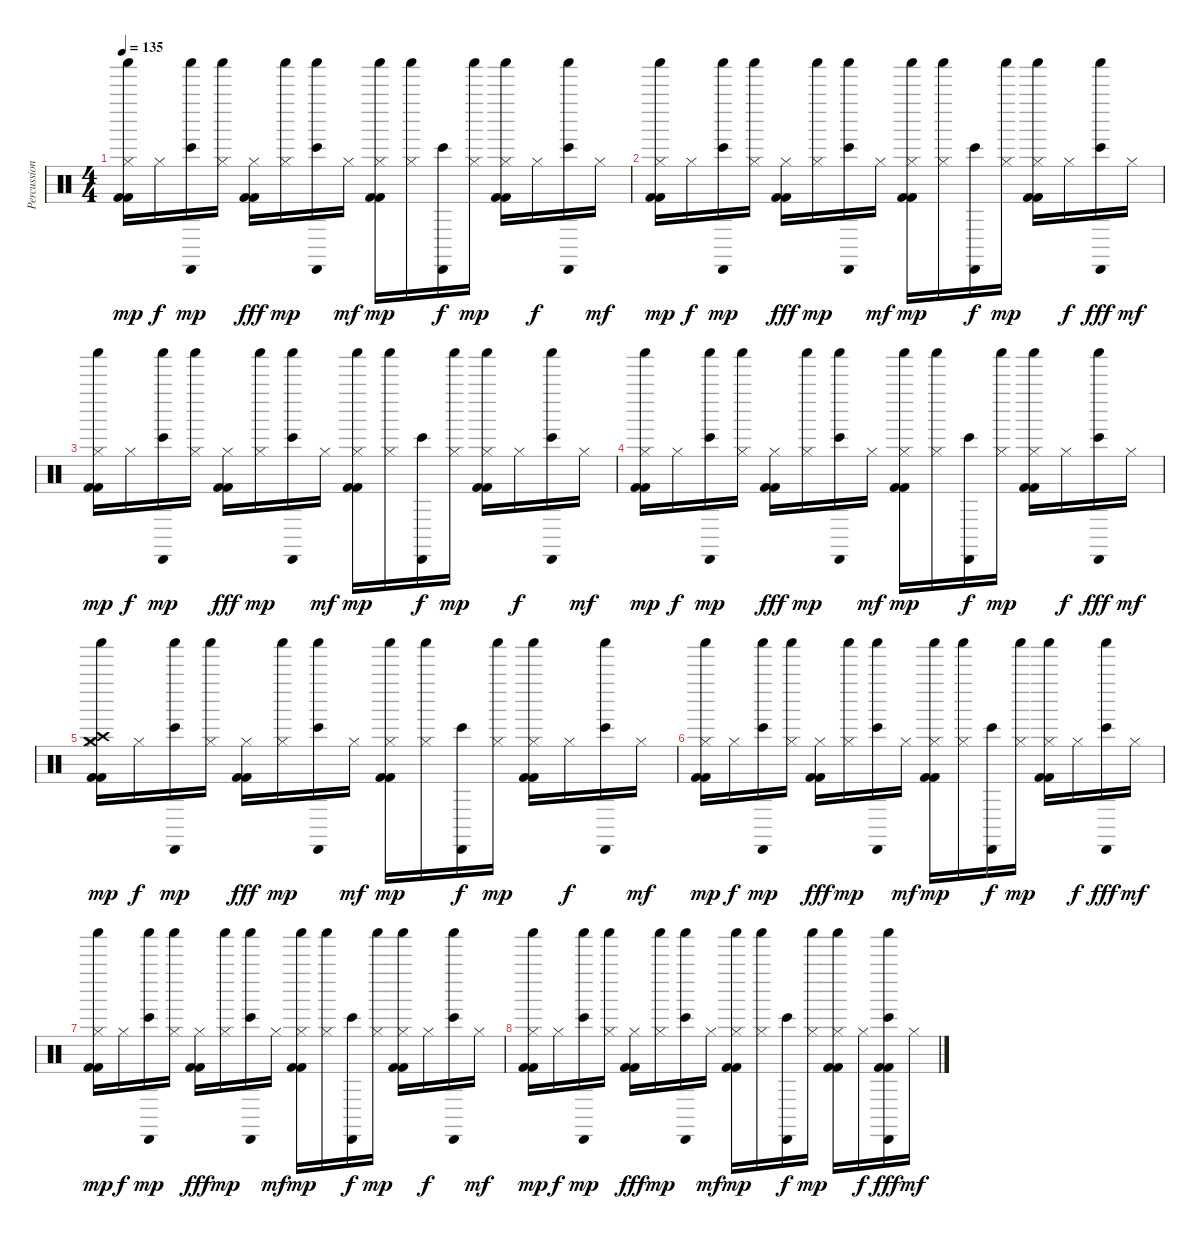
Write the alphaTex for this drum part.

\track ("Percussion" "Percussion") {instrument percussion}
\staff {score}
\articulation defaults
\ts (4 4)
\tempo 135
\clef neutral
\ks c
("Hi-Hat (closed)" "Kick (hit) 2" "Kick (hit) 2" "Shaker (hit)").16{dy mp} "Hi-Hat (closed)".16{dy f} ("Cabasa (hit)" "Bongo High (hit)" "Shaker (hit)").16{dy mp} ("Hi-Hat (closed)" "Shaker (hit)").16 ("Hi-Hat (closed)" "Kick (hit) 2" "Kick (hit) 2").16{dy fff} ("Hi-Hat (closed)" "Shaker (hit)").16{dy mp} ("Cabasa (hit)" "Bongo High (hit)" "Shaker (hit)").16 "Hi-Hat (closed)".16{dy mf} ("Hi-Hat (closed)" "Kick (hit) 2" "Kick (hit) 2" "Shaker (hit)").16{dy mp} ("Hi-Hat (closed)" "Shaker (hit)").16 ("Cabasa (hit)" "Bongo High (hit)").16{dy f} ("Hi-Hat (closed)" "Shaker (hit)").16{dy mp} ("Hi-Hat (closed)" "Kick (hit) 2" "Kick (hit) 2" "Shaker (hit)").16 "Hi-Hat (closed)".16{dy f} ("Cabasa (hit)" "Bongo High (hit)" "Shaker (hit)").16 "Hi-Hat (closed)".16{dy mf} |
("Hi-Hat (closed)" "Kick (hit) 2" "Kick (hit) 2" "Shaker (hit)").16{dy mp} "Hi-Hat (closed)".16{dy f} ("Cabasa (hit)" "Bongo High (hit)" "Shaker (hit)").16{dy mp} ("Hi-Hat (closed)" "Shaker (hit)").16 ("Hi-Hat (closed)" "Kick (hit) 2" "Kick (hit) 2").16{dy fff} ("Hi-Hat (closed)" "Shaker (hit)").16{dy mp} ("Cabasa (hit)" "Bongo High (hit)" "Shaker (hit)").16 "Hi-Hat (closed)".16{dy mf} ("Hi-Hat (closed)" "Kick (hit) 2" "Kick (hit) 2" "Shaker (hit)").16{dy mp} ("Hi-Hat (closed)" "Shaker (hit)").16 ("Cabasa (hit)" "Bongo High (hit)").16{dy f} ("Hi-Hat (closed)" "Shaker (hit)").16{dy mp} ("Hi-Hat (closed)" "Kick (hit) 2" "Kick (hit) 2" "Shaker (hit)").16 "Hi-Hat (closed)".16{dy f} ("Cabasa (hit)" "Bongo High (hit)" "Shaker (hit)").16{dy fff} "Hi-Hat (closed)".16{dy mf} |
("Hi-Hat (closed)" "Kick (hit) 2" "Kick (hit) 2" "Shaker (hit)").16{dy mp} "Hi-Hat (closed)".16{dy f} ("Cabasa (hit)" "Bongo High (hit)" "Shaker (hit)").16{dy mp} ("Hi-Hat (closed)" "Shaker (hit)").16 ("Hi-Hat (closed)" "Kick (hit) 2" "Kick (hit) 2").16{dy fff} ("Hi-Hat (closed)" "Shaker (hit)").16{dy mp} ("Cabasa (hit)" "Bongo High (hit)" "Shaker (hit)").16 "Hi-Hat (closed)".16{dy mf} ("Hi-Hat (closed)" "Kick (hit) 2" "Kick (hit) 2" "Shaker (hit)").16{dy mp} ("Hi-Hat (closed)" "Shaker (hit)").16 ("Cabasa (hit)" "Bongo High (hit)").16{dy f} ("Hi-Hat (closed)" "Shaker (hit)").16{dy mp} ("Hi-Hat (closed)" "Kick (hit) 2" "Kick (hit) 2" "Shaker (hit)").16 "Hi-Hat (closed)".16{dy f} ("Cabasa (hit)" "Bongo High (hit)" "Shaker (hit)").16 "Hi-Hat (closed)".16{dy mf} |
("Hi-Hat (closed)" "Kick (hit) 2" "Kick (hit) 2" "Shaker (hit)").16{dy mp} "Hi-Hat (closed)".16{dy f} ("Cabasa (hit)" "Bongo High (hit)" "Shaker (hit)").16{dy mp} ("Hi-Hat (closed)" "Shaker (hit)").16 ("Hi-Hat (closed)" "Kick (hit) 2" "Kick (hit) 2").16{dy fff} ("Hi-Hat (closed)" "Shaker (hit)").16{dy mp} ("Cabasa (hit)" "Bongo High (hit)" "Shaker (hit)").16 "Hi-Hat (closed)".16{dy mf} ("Hi-Hat (closed)" "Kick (hit) 2" "Kick (hit) 2" "Shaker (hit)").16{dy mp} ("Hi-Hat (closed)" "Shaker (hit)").16 ("Cabasa (hit)" "Bongo High (hit)").16{dy f} ("Hi-Hat (closed)" "Shaker (hit)").16{dy mp} ("Hi-Hat (closed)" "Kick (hit) 2" "Kick (hit) 2" "Shaker (hit)").16 "Hi-Hat (closed)".16{dy f} ("Cabasa (hit)" "Bongo High (hit)" "Shaker (hit)").16{dy fff} "Hi-Hat (closed)".16{dy mf} |
("Crash medium (hit)" "Hi-Hat (closed)" "Crash high (hit)" "Kick (hit) 2" "Kick (hit) 2" "Shaker (hit)").16{dy mp} "Hi-Hat (closed)".16{dy f} ("Cabasa (hit)" "Bongo High (hit)" "Shaker (hit)").16{dy mp} ("Hi-Hat (closed)" "Shaker (hit)").16 ("Hi-Hat (closed)" "Kick (hit) 2" "Kick (hit) 2").16{dy fff} ("Hi-Hat (closed)" "Shaker (hit)").16{dy mp} ("Cabasa (hit)" "Bongo High (hit)" "Shaker (hit)").16 "Hi-Hat (closed)".16{dy mf} ("Hi-Hat (closed)" "Kick (hit) 2" "Kick (hit) 2" "Shaker (hit)").16{dy mp} ("Hi-Hat (closed)" "Shaker (hit)").16 ("Cabasa (hit)" "Bongo High (hit)").16{dy f} ("Hi-Hat (closed)" "Shaker (hit)").16{dy mp} ("Hi-Hat (closed)" "Kick (hit) 2" "Kick (hit) 2" "Shaker (hit)").16 "Hi-Hat (closed)".16{dy f} ("Cabasa (hit)" "Bongo High (hit)" "Shaker (hit)").16 "Hi-Hat (closed)".16{dy mf} |
("Hi-Hat (closed)" "Kick (hit) 2" "Kick (hit) 2" "Shaker (hit)").16{dy mp} "Hi-Hat (closed)".16{dy f} ("Cabasa (hit)" "Bongo High (hit)" "Shaker (hit)").16{dy mp} ("Hi-Hat (closed)" "Shaker (hit)").16 ("Hi-Hat (closed)" "Kick (hit) 2" "Kick (hit) 2").16{dy fff} ("Hi-Hat (closed)" "Shaker (hit)").16{dy mp} ("Cabasa (hit)" "Bongo High (hit)" "Shaker (hit)").16 "Hi-Hat (closed)".16{dy mf} ("Hi-Hat (closed)" "Kick (hit) 2" "Kick (hit) 2" "Shaker (hit)").16{dy mp} ("Hi-Hat (closed)" "Shaker (hit)").16 ("Cabasa (hit)" "Bongo High (hit)").16{dy f} ("Hi-Hat (closed)" "Shaker (hit)").16{dy mp} ("Hi-Hat (closed)" "Kick (hit) 2" "Kick (hit) 2" "Shaker (hit)").16 "Hi-Hat (closed)".16{dy f} ("Cabasa (hit)" "Bongo High (hit)" "Shaker (hit)").16{dy fff} "Hi-Hat (closed)".16{dy mf} |
("Hi-Hat (closed)" "Kick (hit) 2" "Kick (hit) 2" "Shaker (hit)").16{dy mp} "Hi-Hat (closed)".16{dy f} ("Cabasa (hit)" "Bongo High (hit)" "Shaker (hit)").16{dy mp} ("Hi-Hat (closed)" "Shaker (hit)").16 ("Hi-Hat (closed)" "Kick (hit) 2" "Kick (hit) 2").16{dy fff} ("Hi-Hat (closed)" "Shaker (hit)").16{dy mp} ("Cabasa (hit)" "Bongo High (hit)" "Shaker (hit)").16 "Hi-Hat (closed)".16{dy mf} ("Hi-Hat (closed)" "Kick (hit) 2" "Kick (hit) 2" "Shaker (hit)").16{dy mp} ("Hi-Hat (closed)" "Shaker (hit)").16 ("Cabasa (hit)" "Bongo High (hit)").16{dy f} ("Hi-Hat (closed)" "Shaker (hit)").16{dy mp} ("Hi-Hat (closed)" "Kick (hit) 2" "Kick (hit) 2" "Shaker (hit)").16 "Hi-Hat (closed)".16{dy f} ("Cabasa (hit)" "Bongo High (hit)" "Shaker (hit)").16 "Hi-Hat (closed)".16{dy mf} |
("Hi-Hat (closed)" "Kick (hit) 2" "Kick (hit) 2" "Shaker (hit)").16{dy mp} "Hi-Hat (closed)".16{dy f} ("Cabasa (hit)" "Bongo High (hit)" "Shaker (hit)").16{dy mp} ("Hi-Hat (closed)" "Shaker (hit)").16 ("Hi-Hat (closed)" "Kick (hit) 2" "Kick (hit) 2").16{dy fff} ("Hi-Hat (closed)" "Shaker (hit)").16{dy mp} ("Cabasa (hit)" "Bongo High (hit)" "Shaker (hit)").16 "Hi-Hat (closed)".16{dy mf} ("Hi-Hat (closed)" "Kick (hit) 2" "Kick (hit) 2" "Shaker (hit)").16{dy mp} ("Hi-Hat (closed)" "Shaker (hit)").16 ("Cabasa (hit)" "Bongo High (hit)").16{dy f} ("Hi-Hat (closed)" "Shaker (hit)").16{dy mp} ("Hi-Hat (closed)" "Kick (hit) 2" "Kick (hit) 2" "Shaker (hit)").16 "Hi-Hat (closed)".16{dy f} ("Cabasa (hit)" "Bongo High (hit)" "Kick (hit) 2" "Kick (hit) 2" "Shaker (hit)").16{dy fff} "Hi-Hat (closed)".16{dy mf}
